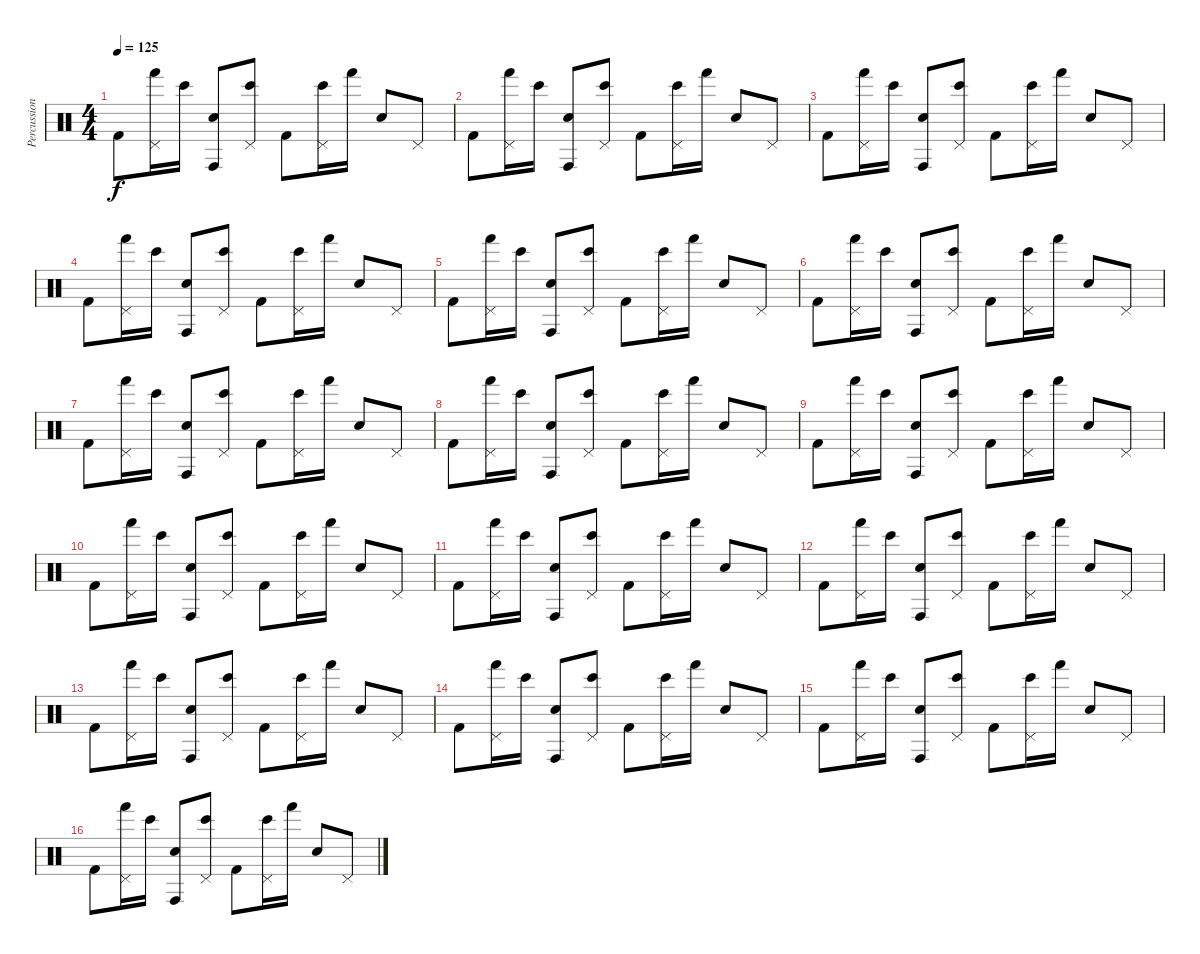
\track ("Percussion" "Percussion") {instrument percussion}
\staff {score}
\articulation defaults
\ts (4 4)
\tempo 125
\clef neutral
\ks c "Kick (hit) 2".8{dy f}
("Pedal Hi-Hat (hit)" "Hand (hit)").16 "Bongo High (hit)".16 ("Electric Snare (hit)" "Conga high (hit)").8 ("Pedal Hi-Hat (hit)" "Bongo High (hit)").8 "Kick (hit) 2".8 ("Pedal Hi-Hat (hit)" "Bongo High (hit)").16 "Hand (hit)".16 "Electric Snare (hit)".8 "Pedal Hi-Hat (hit)".8 |
"Kick (hit) 2".8 ("Pedal Hi-Hat (hit)" "Hand (hit)").16 "Bongo High (hit)".16 ("Electric Snare (hit)" "Conga high (hit)").8 ("Pedal Hi-Hat (hit)" "Bongo High (hit)").8 "Kick (hit) 2".8 ("Pedal Hi-Hat (hit)" "Bongo High (hit)").16 "Hand (hit)".16 "Electric Snare (hit)".8 "Pedal Hi-Hat (hit)".8 |
"Kick (hit) 2".8 ("Pedal Hi-Hat (hit)" "Hand (hit)").16 "Bongo High (hit)".16 ("Electric Snare (hit)" "Conga high (hit)").8 ("Pedal Hi-Hat (hit)" "Bongo High (hit)").8 "Kick (hit) 2".8 ("Pedal Hi-Hat (hit)" "Bongo High (hit)").16 "Hand (hit)".16 "Electric Snare (hit)".8 "Pedal Hi-Hat (hit)".8 |
"Kick (hit) 2".8 ("Pedal Hi-Hat (hit)" "Hand (hit)").16 "Bongo High (hit)".16 ("Electric Snare (hit)" "Conga high (hit)").8 ("Pedal Hi-Hat (hit)" "Bongo High (hit)").8 "Kick (hit) 2".8 ("Pedal Hi-Hat (hit)" "Bongo High (hit)").16 "Hand (hit)".16 "Electric Snare (hit)".8 "Pedal Hi-Hat (hit)".8 |
"Kick (hit) 2".8 ("Pedal Hi-Hat (hit)" "Hand (hit)").16 "Bongo High (hit)".16 ("Electric Snare (hit)" "Conga high (hit)").8 ("Pedal Hi-Hat (hit)" "Bongo High (hit)").8 "Kick (hit) 2".8 ("Pedal Hi-Hat (hit)" "Bongo High (hit)").16 "Hand (hit)".16 "Electric Snare (hit)".8 "Pedal Hi-Hat (hit)".8 |
"Kick (hit) 2".8 ("Pedal Hi-Hat (hit)" "Hand (hit)").16 "Bongo High (hit)".16 ("Electric Snare (hit)" "Conga high (hit)").8 ("Pedal Hi-Hat (hit)" "Bongo High (hit)").8 "Kick (hit) 2".8 ("Pedal Hi-Hat (hit)" "Bongo High (hit)").16 "Hand (hit)".16 "Electric Snare (hit)".8 "Pedal Hi-Hat (hit)".8 |
"Kick (hit) 2".8 ("Pedal Hi-Hat (hit)" "Hand (hit)").16 "Bongo High (hit)".16 ("Electric Snare (hit)" "Conga high (hit)").8 ("Pedal Hi-Hat (hit)" "Bongo High (hit)").8 "Kick (hit) 2".8 ("Pedal Hi-Hat (hit)" "Bongo High (hit)").16 "Hand (hit)".16 "Electric Snare (hit)".8 "Pedal Hi-Hat (hit)".8 |
"Kick (hit) 2".8 ("Pedal Hi-Hat (hit)" "Hand (hit)").16 "Bongo High (hit)".16 ("Electric Snare (hit)" "Conga high (hit)").8 ("Pedal Hi-Hat (hit)" "Bongo High (hit)").8 "Kick (hit) 2".8 ("Pedal Hi-Hat (hit)" "Bongo High (hit)").16 "Hand (hit)".16 "Electric Snare (hit)".8 "Pedal Hi-Hat (hit)".8 |
"Kick (hit) 2".8 ("Pedal Hi-Hat (hit)" "Hand (hit)").16 "Bongo High (hit)".16 ("Electric Snare (hit)" "Conga high (hit)").8 ("Pedal Hi-Hat (hit)" "Bongo High (hit)").8 "Kick (hit) 2".8 ("Pedal Hi-Hat (hit)" "Bongo High (hit)").16 "Hand (hit)".16 "Electric Snare (hit)".8 "Pedal Hi-Hat (hit)".8 |
"Kick (hit) 2".8 ("Pedal Hi-Hat (hit)" "Hand (hit)").16 "Bongo High (hit)".16 ("Electric Snare (hit)" "Conga high (hit)").8 ("Pedal Hi-Hat (hit)" "Bongo High (hit)").8 "Kick (hit) 2".8 ("Pedal Hi-Hat (hit)" "Bongo High (hit)").16 "Hand (hit)".16 "Electric Snare (hit)".8 "Pedal Hi-Hat (hit)".8 |
"Kick (hit) 2".8 ("Pedal Hi-Hat (hit)" "Hand (hit)").16 "Bongo High (hit)".16 ("Electric Snare (hit)" "Conga high (hit)").8 ("Pedal Hi-Hat (hit)" "Bongo High (hit)").8 "Kick (hit) 2".8 ("Pedal Hi-Hat (hit)" "Bongo High (hit)").16 "Hand (hit)".16 "Electric Snare (hit)".8 "Pedal Hi-Hat (hit)".8 |
"Kick (hit) 2".8 ("Pedal Hi-Hat (hit)" "Hand (hit)").16 "Bongo High (hit)".16 ("Electric Snare (hit)" "Conga high (hit)").8 ("Pedal Hi-Hat (hit)" "Bongo High (hit)").8 "Kick (hit) 2".8 ("Pedal Hi-Hat (hit)" "Bongo High (hit)").16 "Hand (hit)".16 "Electric Snare (hit)".8 "Pedal Hi-Hat (hit)".8 |
"Kick (hit) 2".8 ("Pedal Hi-Hat (hit)" "Hand (hit)").16 "Bongo High (hit)".16 ("Electric Snare (hit)" "Conga high (hit)").8 ("Pedal Hi-Hat (hit)" "Bongo High (hit)").8 "Kick (hit) 2".8 ("Pedal Hi-Hat (hit)" "Bongo High (hit)").16 "Hand (hit)".16 "Electric Snare (hit)".8 "Pedal Hi-Hat (hit)".8 |
"Kick (hit) 2".8 ("Pedal Hi-Hat (hit)" "Hand (hit)").16 "Bongo High (hit)".16 ("Electric Snare (hit)" "Conga high (hit)").8 ("Pedal Hi-Hat (hit)" "Bongo High (hit)").8 "Kick (hit) 2".8 ("Pedal Hi-Hat (hit)" "Bongo High (hit)").16 "Hand (hit)".16 "Electric Snare (hit)".8 "Pedal Hi-Hat (hit)".8 |
"Kick (hit) 2".8 ("Pedal Hi-Hat (hit)" "Hand (hit)").16 "Bongo High (hit)".16 ("Electric Snare (hit)" "Conga high (hit)").8 ("Pedal Hi-Hat (hit)" "Bongo High (hit)").8 "Kick (hit) 2".8 ("Pedal Hi-Hat (hit)" "Bongo High (hit)").16 "Hand (hit)".16 "Electric Snare (hit)".8 "Pedal Hi-Hat (hit)".8 |
"Kick (hit) 2".8 ("Pedal Hi-Hat (hit)" "Hand (hit)").16 "Bongo High (hit)".16 ("Electric Snare (hit)" "Conga high (hit)").8 ("Pedal Hi-Hat (hit)" "Bongo High (hit)").8 "Kick (hit) 2".8 ("Pedal Hi-Hat (hit)" "Bongo High (hit)").16 "Hand (hit)".16 "Electric Snare (hit)".8 "Pedal Hi-Hat (hit)".8
